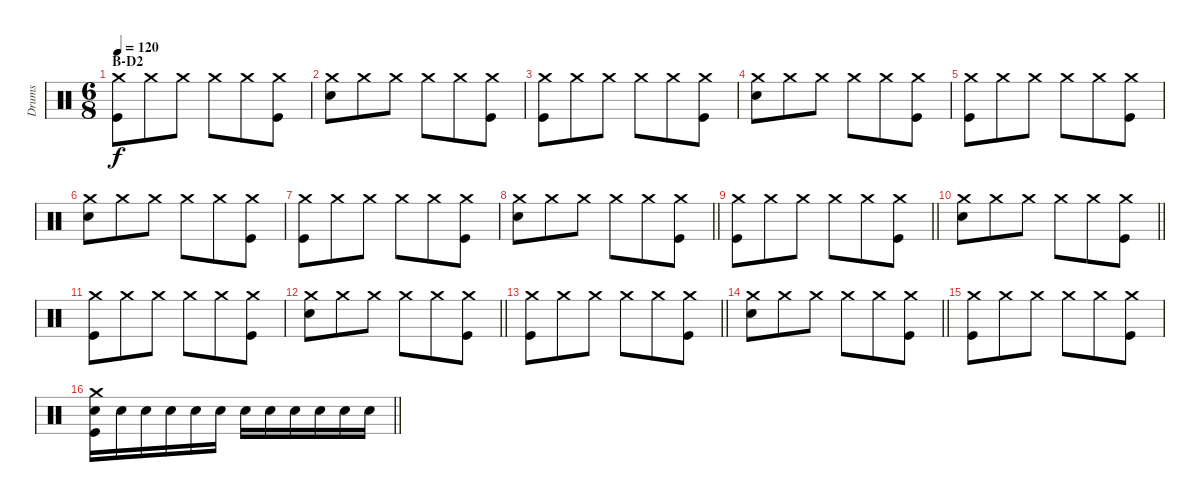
\track ("Drums" "Drums") {instrument percussion}
\staff {score}
\articulation defaults
\ts (6 8)
\section ("" "B-D2")
\tempo 120
\clef neutral
\ks c
("Crash medium (hit)" "Kick (hit)").8{dy f} "Crash medium (hit)".8 "Crash medium (hit)".8 "Crash medium (hit)".8 "Crash medium (hit)".8 ("Crash medium (hit)" "Kick (hit)").8 |
("Crash medium (hit)" "Electric Snare (hit)").8 "Crash medium (hit)".8 "Crash medium (hit)".8 "Crash medium (hit)".8 "Crash medium (hit)".8 ("Crash medium (hit)" "Kick (hit)").8 |
("Crash medium (hit)" "Kick (hit)").8 "Crash medium (hit)".8 "Crash medium (hit)".8 "Crash medium (hit)".8 "Crash medium (hit)".8 ("Crash medium (hit)" "Kick (hit)").8 |
("Crash medium (hit)" "Electric Snare (hit)").8 "Crash medium (hit)".8 "Crash medium (hit)".8 "Crash medium (hit)".8 "Crash medium (hit)".8 ("Crash medium (hit)" "Kick (hit)").8 |
("Crash medium (hit)" "Kick (hit)").8 "Crash medium (hit)".8 "Crash medium (hit)".8 "Crash medium (hit)".8 "Crash medium (hit)".8 ("Crash medium (hit)" "Kick (hit)").8 |
("Crash medium (hit)" "Electric Snare (hit)").8 "Crash medium (hit)".8 "Crash medium (hit)".8 "Crash medium (hit)".8 "Crash medium (hit)".8 ("Crash medium (hit)" "Kick (hit)").8 |
("Crash medium (hit)" "Kick (hit)").8 "Crash medium (hit)".8 "Crash medium (hit)".8 "Crash medium (hit)".8 "Crash medium (hit)".8 ("Crash medium (hit)" "Kick (hit)").8 |
\barLineRight lightlight
("Crash medium (hit)" "Electric Snare (hit)").8 "Crash medium (hit)".8 "Crash medium (hit)".8 "Crash medium (hit)".8 "Crash medium (hit)".8 ("Crash medium (hit)" "Kick (hit)").8 |
\barLineRight lightlight
("Crash medium (hit)" "Kick (hit)").8 "Crash medium (hit)".8 "Crash medium (hit)".8 "Crash medium (hit)".8 "Crash medium (hit)".8 ("Crash medium (hit)" "Kick (hit)").8 |
\barLineRight lightlight
("Crash medium (hit)" "Electric Snare (hit)").8 "Crash medium (hit)".8 "Crash medium (hit)".8 "Crash medium (hit)".8 "Crash medium (hit)".8 ("Crash medium (hit)" "Kick (hit)").8 |
("Crash medium (hit)" "Kick (hit)").8 "Crash medium (hit)".8 "Crash medium (hit)".8 "Crash medium (hit)".8 "Crash medium (hit)".8 ("Crash medium (hit)" "Kick (hit)").8 |
\barLineRight lightlight
("Crash medium (hit)" "Electric Snare (hit)").8 "Crash medium (hit)".8 "Crash medium (hit)".8 "Crash medium (hit)".8 "Crash medium (hit)".8 ("Crash medium (hit)" "Kick (hit)").8 |
\barLineRight lightlight
("Crash medium (hit)" "Kick (hit)").8 "Crash medium (hit)".8 "Crash medium (hit)".8 "Crash medium (hit)".8 "Crash medium (hit)".8 ("Crash medium (hit)" "Kick (hit)").8 |
\barLineRight lightlight
("Crash medium (hit)" "Electric Snare (hit)").8 "Crash medium (hit)".8 "Crash medium (hit)".8 "Crash medium (hit)".8 "Crash medium (hit)".8 ("Crash medium (hit)" "Kick (hit)").8 |
("Crash medium (hit)" "Kick (hit)").8 "Crash medium (hit)".8 "Crash medium (hit)".8 "Crash medium (hit)".8 "Crash medium (hit)".8 ("Crash medium (hit)" "Kick (hit)").8 |
\barLineRight lightlight
("Crash medium (hit)" "Electric Snare (hit)" "Kick (hit)").16 "Electric Snare (hit)".16 "Electric Snare (hit)".16 "Electric Snare (hit)".16 "Electric Snare (hit)".16 "Electric Snare (hit)".16 "Electric Snare (hit)".16 "Electric Snare (hit)".16 "Electric Snare (hit)".16 "Electric Snare (hit)".16 "Electric Snare (hit)".16 "Electric Snare (hit)".16
